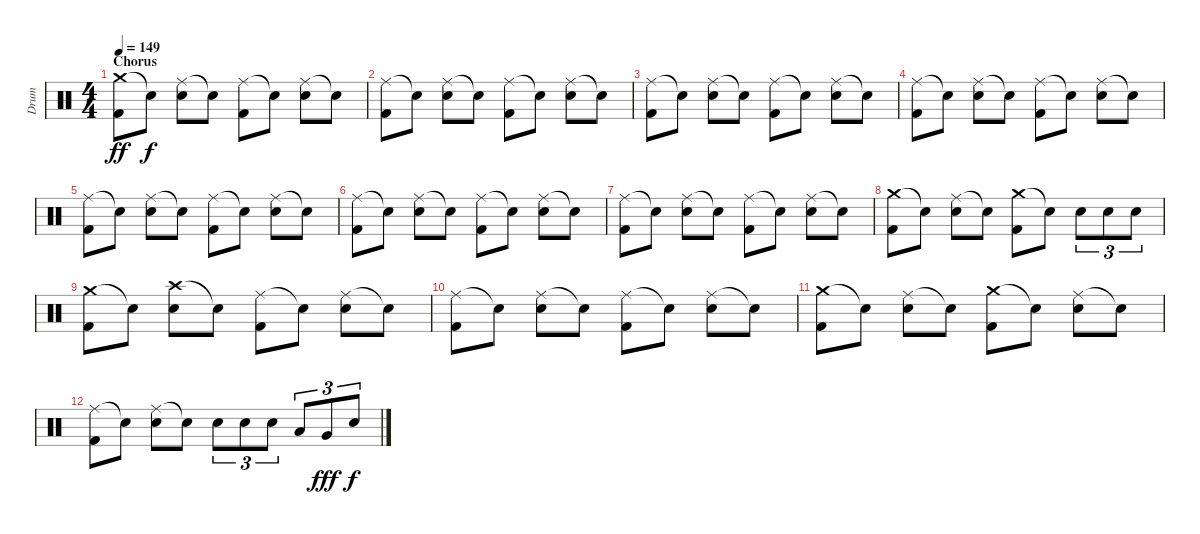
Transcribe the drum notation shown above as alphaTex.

\track ("Drum" "Drum") {instrument percussion}
\staff {score}
\articulation defaults
\ts (4 4)
\section ("" "Chorus")
\tempo 149
\clef neutral
\ks c
("Crash medium (hit)" "Kick (hit) 2").8{dy ff} "Snare (hit)"{t}.8{dy f} ("Ride (middle)" "Snare (hit) 2").8 "Snare (hit)"{t}.8 ("Ride (middle)" "Kick (hit) 2").8 "Snare (hit)"{t}.8 ("Ride (middle)" "Snare (hit) 2").8 "Snare (hit)"{t}.8 |
("Ride (middle)" "Kick (hit) 2").8 "Snare (hit)"{t}.8 ("Ride (middle)" "Snare (hit) 2").8 "Snare (hit)"{t}.8 ("Ride (middle)" "Kick (hit) 2").8 "Snare (hit)"{t}.8 ("Ride (middle)" "Snare (hit) 2").8 "Snare (hit)"{t}.8 |
("Ride (middle)" "Kick (hit) 2").8 "Snare (hit)"{t}.8 ("Ride (middle)" "Snare (hit) 2").8 "Snare (hit)"{t}.8 ("Ride (middle)" "Kick (hit) 2").8 "Snare (hit)"{t}.8 ("Ride (middle)" "Snare (hit) 2").8 "Snare (hit)"{t}.8 |
("Ride (middle)" "Kick (hit) 2").8 "Snare (hit)"{t}.8 ("Ride (middle)" "Snare (hit) 2").8 "Snare (hit)"{t}.8 ("Ride (middle)" "Kick (hit) 2").8 "Snare (hit)"{t}.8 ("Ride (middle)" "Snare (hit) 2").8 "Snare (hit)"{t}.8 |
("Ride (middle)" "Kick (hit) 2").8 "Snare (hit)"{t}.8 ("Ride (middle)" "Snare (hit) 2").8 "Snare (hit)"{t}.8 ("Ride (middle)" "Kick (hit) 2").8 "Snare (hit)"{t}.8 ("Ride (middle)" "Snare (hit) 2").8 "Snare (hit)"{t}.8 |
("Ride (middle)" "Kick (hit) 2").8 "Snare (hit)"{t}.8 ("Ride (middle)" "Snare (hit) 2").8 "Snare (hit)"{t}.8 ("Ride (middle)" "Kick (hit) 2").8 "Snare (hit)"{t}.8 ("Ride (middle)" "Snare (hit) 2").8 "Snare (hit)"{t}.8 |
("Ride (middle)" "Kick (hit) 2").8 "Snare (hit)"{t}.8 ("Ride (middle)" "Snare (hit) 2").8 "Snare (hit)"{t}.8 ("Ride (middle)" "Kick (hit) 2").8 "Snare (hit)"{t}.8 ("Ride (middle)" "Snare (hit) 2").8 "Snare (hit)"{t}.8 |
("Crash medium (hit)" "Kick (hit) 2").8 "Snare (hit)"{t}.8 ("Ride (middle)" "Snare (hit) 2").8 "Snare (hit)"{t}.8 ("Crash medium (hit)" "Kick (hit) 2").8 "Snare (hit)"{t}.8 "Snare (hit) 2".8{tu (3 2)} "Snare (hit) 2".8{tu (3 2)} "Snare (hit) 2".8{tu (3 2)} |
("Crash medium (hit)" "Kick (hit) 2").8 "Snare (hit)"{t}.8 ("Crash high (hit)" "Snare (hit) 2").8 "Snare (hit)"{t}.8 ("Ride (middle)" "Kick (hit) 2").8 "Snare (hit)"{t}.8 ("Ride (middle)" "Snare (hit) 2").8 "Snare (hit)"{t}.8 |
("Ride (middle)" "Kick (hit) 2").8 "Snare (hit)"{t}.8 ("Ride (middle)" "Snare (hit) 2").8 "Snare (hit)"{t}.8 ("Ride (middle)" "Kick (hit) 2").8 "Snare (hit)"{t}.8 ("Ride (middle)" "Snare (hit) 2").8 "Snare (hit)"{t}.8 |
("Crash medium (hit)" "Kick (hit) 2").8 "Snare (hit)"{t}.8 ("Ride (middle)" "Snare (hit) 2").8 "Snare (hit)"{t}.8 ("Crash medium (hit)" "Kick (hit) 2").8 "Snare (hit)"{t}.8 ("Ride (middle)" "Snare (hit) 2").8 "Snare (hit)"{t}.8 |
("Ride (middle)" "Kick (hit) 2").8 "Snare (hit)"{t}.8 ("Ride (middle)" "Snare (hit) 2").8 "Snare (hit)"{t}.8 "Snare (hit) 2".8{tu (3 2)} "Snare (hit) 2".8{tu (3 2)} "Snare (hit) 2".8{tu (3 2)} "Low Tom (hit)".8{tu (3 2)} "Very Low Tom (hit)".8{tu (3 2) dy fff} "Snare (hit) 2".8{tu (3 2) dy f}
